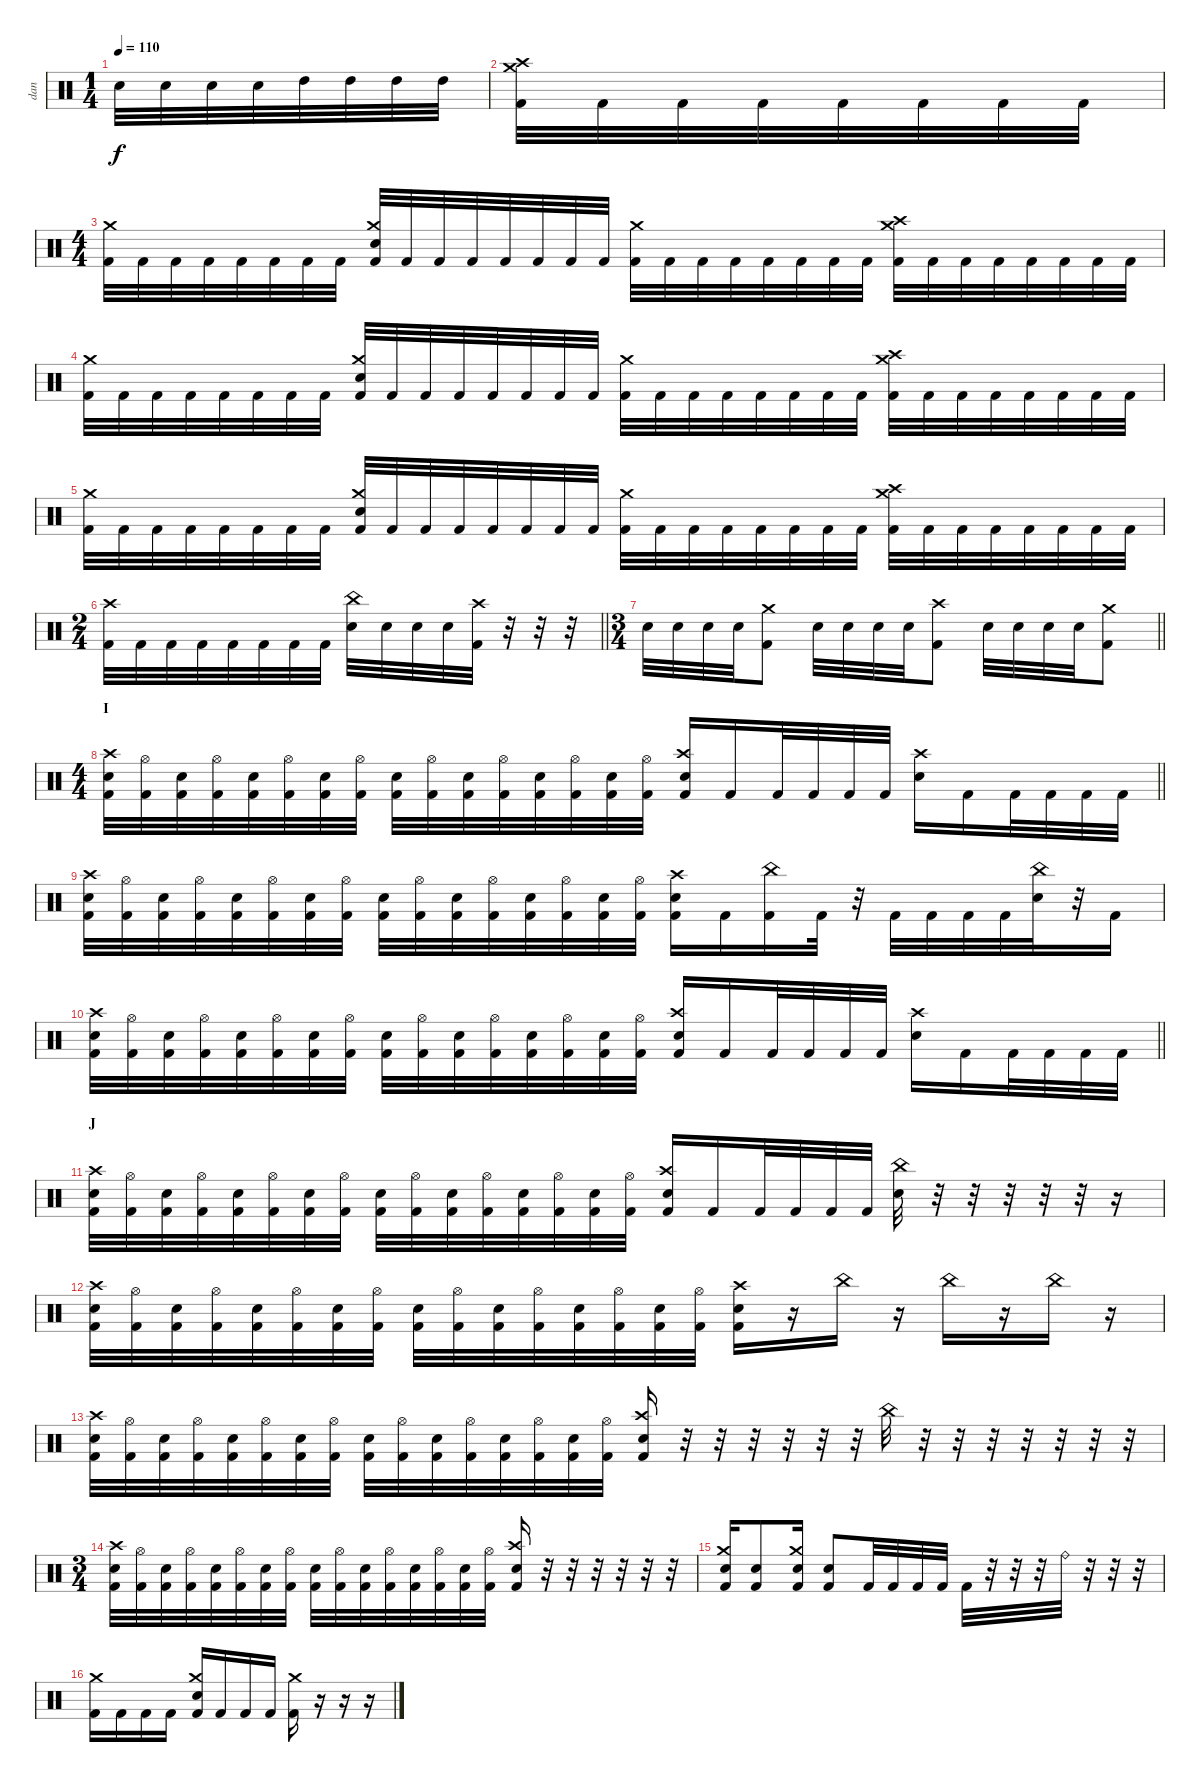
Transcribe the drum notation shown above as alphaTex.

\track ("dan" "dan") {instrument percussion}
\staff {score}
\articulation defaults
\ts (1 4)
\tempo 110
\clef neutral
\ks c "Electric Snare (hit)".32{dy f} "Electric Snare (hit)".32 "Electric Snare (hit)".32 "Electric Snare (hit)".32 "High Tom (hit)".32 "High Tom (hit)".32 "High Tom (hit)".32 "High Tom (hit)".32
|
("Crash high (hit)" "Crash medium (hit)" "Kick (hit) 2").32 "Kick (hit) 2".32 "Kick (hit) 2".32 "Kick (hit) 2".32 "Kick (hit) 2".32 "Kick (hit) 2".32 "Kick (hit) 2".32 "Kick (hit) 2".32 |
\ts (4 4)
("Crash medium (hit)" "Kick (hit) 2").32 "Kick (hit) 2".32 "Kick (hit) 2".32 "Kick (hit) 2".32 "Kick (hit) 2".32 "Kick (hit) 2".32 "Kick (hit) 2".32 "Kick (hit) 2".32 ("Crash medium (hit)" "Electric Snare (hit)" "Kick (hit) 2").32 "Kick (hit) 2".32 "Kick (hit) 2".32 "Kick (hit) 2".32 "Kick (hit) 2".32 "Kick (hit) 2".32 "Kick (hit) 2".32 "Kick (hit) 2".32 ("Crash medium (hit)" "Kick (hit) 2").32 "Kick (hit) 2".32 "Kick (hit) 2".32 "Kick (hit) 2".32 "Kick (hit) 2".32 "Kick (hit) 2".32 "Kick (hit) 2".32 "Kick (hit) 2".32 ("Crash medium (hit)" "Crash high (hit)" "Kick (hit) 2").32 "Kick (hit) 2".32 "Kick (hit) 2".32 "Kick (hit) 2".32 "Kick (hit) 2".32 "Kick (hit) 2".32 "Kick (hit) 2".32 "Kick (hit) 2".32 |
("Crash medium (hit)" "Kick (hit) 2").32 "Kick (hit) 2".32 "Kick (hit) 2".32 "Kick (hit) 2".32 "Kick (hit) 2".32 "Kick (hit) 2".32 "Kick (hit) 2".32 "Kick (hit) 2".32 ("Crash medium (hit)" "Electric Snare (hit)" "Kick (hit) 2").32 "Kick (hit) 2".32 "Kick (hit) 2".32 "Kick (hit) 2".32 "Kick (hit) 2".32 "Kick (hit) 2".32 "Kick (hit) 2".32 "Kick (hit) 2".32 ("Crash medium (hit)" "Kick (hit) 2").32 "Kick (hit) 2".32 "Kick (hit) 2".32 "Kick (hit) 2".32 "Kick (hit) 2".32 "Kick (hit) 2".32 "Kick (hit) 2".32 "Kick (hit) 2".32 ("Crash medium (hit)" "Crash high (hit)" "Kick (hit) 2").32 "Kick (hit) 2".32 "Kick (hit) 2".32 "Kick (hit) 2".32 "Kick (hit) 2".32 "Kick (hit) 2".32 "Kick (hit) 2".32 "Kick (hit) 2".32 |
("Crash medium (hit)" "Kick (hit) 2").32 "Kick (hit) 2".32 "Kick (hit) 2".32 "Kick (hit) 2".32 "Kick (hit) 2".32 "Kick (hit) 2".32 "Kick (hit) 2".32 "Kick (hit) 2".32 ("Crash medium (hit)" "Electric Snare (hit)" "Kick (hit) 2").32 "Kick (hit) 2".32 "Kick (hit) 2".32 "Kick (hit) 2".32 "Kick (hit) 2".32 "Kick (hit) 2".32 "Kick (hit) 2".32 "Kick (hit) 2".32 ("Crash medium (hit)" "Kick (hit) 2").32 "Kick (hit) 2".32 "Kick (hit) 2".32 "Kick (hit) 2".32 "Kick (hit) 2".32 "Kick (hit) 2".32 "Kick (hit) 2".32 "Kick (hit) 2".32 ("Crash medium (hit)" "Crash high (hit)" "Kick (hit) 2").32 "Kick (hit) 2".32 "Kick (hit) 2".32 "Kick (hit) 2".32 "Kick (hit) 2".32 "Kick (hit) 2".32 "Kick (hit) 2".32 "Kick (hit) 2".32 |
\ts (2 4)
\barLineRight lightlight
("Crash high (hit)" "Kick (hit) 2").32 "Kick (hit) 2".32 "Kick (hit) 2".32 "Kick (hit) 2".32 "Kick (hit) 2".32 "Kick (hit) 2".32 "Kick (hit) 2".32 "Kick (hit) 2".32 ("China (hit)" "Electric Snare (hit)").32 "Electric Snare (hit)".32 "Electric Snare (hit)".32 "Electric Snare (hit)".32 ("Crash high (hit)" "Kick (hit) 2").32 r.32 r.32 r.32 |
\ts (3 4)
\barLineRight lightlight "Electric Snare (hit)".32 "Electric Snare (hit)".32 "Electric Snare (hit)".32 "Electric Snare (hit)".32
("Crash medium (hit)" "Kick (hit) 2").8 "Electric Snare (hit)".32 "Electric Snare (hit)".32 "Electric Snare (hit)".32 "Electric Snare (hit)".32 ("Crash high (hit)" "Kick (hit) 2").8 "Electric Snare (hit)".32 "Electric Snare (hit)".32 "Electric Snare (hit)".32 "Electric Snare (hit)".32 ("Crash medium (hit)" "Kick (hit) 2").8 |
\ts (4 4)
\section ("" "I")
\barLineRight lightlight
("Crash high (hit)" "Electric Snare (hit)" "Kick (hit) 2").32 ("Hi-Hat (open)" "Kick (hit) 2").32 ("Electric Snare (hit)" "Kick (hit) 2").32 ("Hi-Hat (open)" "Kick (hit) 2").32 ("Electric Snare (hit)" "Kick (hit) 2").32 ("Hi-Hat (open)" "Kick (hit) 2").32 ("Electric Snare (hit)" "Kick (hit) 2").32 ("Hi-Hat (open)" "Kick (hit) 2").32 ("Electric Snare (hit)" "Kick (hit) 2").32 ("Hi-Hat (open)" "Kick (hit) 2").32 ("Electric Snare (hit)" "Kick (hit) 2").32 ("Hi-Hat (open)" "Kick (hit) 2").32 ("Electric Snare (hit)" "Kick (hit) 2").32 ("Hi-Hat (open)" "Kick (hit) 2").32 ("Electric Snare (hit)" "Kick (hit) 2").32 ("Hi-Hat (open)" "Kick (hit) 2").32 ("Crash high (hit)" "Electric Snare (hit)" "Kick (hit) 2").16 "Kick (hit) 2".16 "Kick (hit) 2".32 "Kick (hit) 2".32 "Kick (hit) 2".32 "Kick (hit) 2".32 ("Crash high (hit)" "Electric Snare (hit)").16 "Kick (hit) 2".16 "Kick (hit) 2".32 "Kick (hit) 2".32 "Kick (hit) 2".32 "Kick (hit) 2".32 |
("Crash high (hit)" "Electric Snare (hit)" "Kick (hit) 2").32 ("Hi-Hat (open)" "Kick (hit) 2").32 ("Electric Snare (hit)" "Kick (hit) 2").32 ("Hi-Hat (open)" "Kick (hit) 2").32 ("Electric Snare (hit)" "Kick (hit) 2").32 ("Hi-Hat (open)" "Kick (hit) 2").32 ("Electric Snare (hit)" "Kick (hit) 2").32 ("Hi-Hat (open)" "Kick (hit) 2").32 ("Electric Snare (hit)" "Kick (hit) 2").32 ("Hi-Hat (open)" "Kick (hit) 2").32 ("Electric Snare (hit)" "Kick (hit) 2").32 ("Hi-Hat (open)" "Kick (hit) 2").32 ("Electric Snare (hit)" "Kick (hit) 2").32 ("Hi-Hat (open)" "Kick (hit) 2").32 ("Electric Snare (hit)" "Kick (hit) 2").32 ("Hi-Hat (open)" "Kick (hit) 2").32 ("Crash high (hit)" "Electric Snare (hit)" "Kick (hit) 2").16 "Kick (hit) 2".16 ("China (hit)" "Kick (hit) 2").16 "Kick (hit) 2".32 r.32 "Kick (hit) 2".32 "Kick (hit) 2".32 "Kick (hit) 2".32 "Kick (hit) 2".32 ("China (hit)" "Electric Snare (hit)").32 r.32 "Kick (hit) 2".16 |
\barLineRight lightlight
("Crash high (hit)" "Electric Snare (hit)" "Kick (hit) 2").32 ("Hi-Hat (open)" "Kick (hit) 2").32 ("Electric Snare (hit)" "Kick (hit) 2").32 ("Hi-Hat (open)" "Kick (hit) 2").32 ("Electric Snare (hit)" "Kick (hit) 2").32 ("Hi-Hat (open)" "Kick (hit) 2").32 ("Electric Snare (hit)" "Kick (hit) 2").32 ("Hi-Hat (open)" "Kick (hit) 2").32 ("Electric Snare (hit)" "Kick (hit) 2").32 ("Hi-Hat (open)" "Kick (hit) 2").32 ("Electric Snare (hit)" "Kick (hit) 2").32 ("Hi-Hat (open)" "Kick (hit) 2").32 ("Electric Snare (hit)" "Kick (hit) 2").32 ("Hi-Hat (open)" "Kick (hit) 2").32 ("Electric Snare (hit)" "Kick (hit) 2").32 ("Hi-Hat (open)" "Kick (hit) 2").32 ("Crash high (hit)" "Electric Snare (hit)" "Kick (hit) 2").16 "Kick (hit) 2".16 "Kick (hit) 2".32 "Kick (hit) 2".32 "Kick (hit) 2".32 "Kick (hit) 2".32 ("Crash high (hit)" "Electric Snare (hit)").16 "Kick (hit) 2".16 "Kick (hit) 2".32 "Kick (hit) 2".32 "Kick (hit) 2".32 "Kick (hit) 2".32 |
\section ("" "J")
("Crash high (hit)" "Electric Snare (hit)" "Kick (hit) 2").32 ("Hi-Hat (open)" "Kick (hit) 2").32 ("Electric Snare (hit)" "Kick (hit) 2").32 ("Hi-Hat (open)" "Kick (hit) 2").32 ("Electric Snare (hit)" "Kick (hit) 2").32 ("Hi-Hat (open)" "Kick (hit) 2").32 ("Electric Snare (hit)" "Kick (hit) 2").32 ("Hi-Hat (open)" "Kick (hit) 2").32 ("Electric Snare (hit)" "Kick (hit) 2").32 ("Hi-Hat (open)" "Kick (hit) 2").32 ("Electric Snare (hit)" "Kick (hit) 2").32 ("Hi-Hat (open)" "Kick (hit) 2").32 ("Electric Snare (hit)" "Kick (hit) 2").32 ("Hi-Hat (open)" "Kick (hit) 2").32 ("Electric Snare (hit)" "Kick (hit) 2").32 ("Hi-Hat (open)" "Kick (hit) 2").32 ("Crash high (hit)" "Electric Snare (hit)" "Kick (hit) 2").16 "Kick (hit) 2".16 "Kick (hit) 2".32 "Kick (hit) 2".32 "Kick (hit) 2".32 "Kick (hit) 2".32 ("China (hit)" "Electric Snare (hit)").32 r.32 r.32 r.32 r.32 r.32 r.16 |
("Crash high (hit)" "Electric Snare (hit)" "Kick (hit) 2").32 ("Hi-Hat (open)" "Kick (hit) 2").32 ("Electric Snare (hit)" "Kick (hit) 2").32 ("Hi-Hat (open)" "Kick (hit) 2").32 ("Electric Snare (hit)" "Kick (hit) 2").32 ("Hi-Hat (open)" "Kick (hit) 2").32 ("Electric Snare (hit)" "Kick (hit) 2").32 ("Hi-Hat (open)" "Kick (hit) 2").32 ("Electric Snare (hit)" "Kick (hit) 2").32 ("Hi-Hat (open)" "Kick (hit) 2").32 ("Electric Snare (hit)" "Kick (hit) 2").32 ("Hi-Hat (open)" "Kick (hit) 2").32 ("Electric Snare (hit)" "Kick (hit) 2").32 ("Hi-Hat (open)" "Kick (hit) 2").32 ("Electric Snare (hit)" "Kick (hit) 2").32 ("Hi-Hat (open)" "Kick (hit) 2").32 ("Crash high (hit)" "Electric Snare (hit)" "Kick (hit) 2").16 r.16 "China (hit)".16 r.16 "China (hit)".16 r.16 "China (hit)".16 r.16 |
("Crash high (hit)" "Electric Snare (hit)" "Kick (hit) 2").32 ("Hi-Hat (open)" "Kick (hit) 2").32 ("Electric Snare (hit)" "Kick (hit) 2").32 ("Hi-Hat (open)" "Kick (hit) 2").32 ("Electric Snare (hit)" "Kick (hit) 2").32 ("Hi-Hat (open)" "Kick (hit) 2").32 ("Electric Snare (hit)" "Kick (hit) 2").32 ("Hi-Hat (open)" "Kick (hit) 2").32 ("Electric Snare (hit)" "Kick (hit) 2").32 ("Hi-Hat (open)" "Kick (hit) 2").32 ("Electric Snare (hit)" "Kick (hit) 2").32 ("Hi-Hat (open)" "Kick (hit) 2").32 ("Electric Snare (hit)" "Kick (hit) 2").32 ("Hi-Hat (open)" "Kick (hit) 2").32 ("Electric Snare (hit)" "Kick (hit) 2").32 ("Hi-Hat (open)" "Kick (hit) 2").32 ("Crash high (hit)" "Electric Snare (hit)" "Kick (hit) 2").16 r.32 r.32 r.32 r.32 r.32 r.32 "China (hit)".32 r.32 r.32 r.32 r.32 r.32 r.32 r.32 |
\ts (3 4)
("Crash high (hit)" "Electric Snare (hit)" "Kick (hit) 2").32 ("Hi-Hat (open)" "Kick (hit) 2").32 ("Electric Snare (hit)" "Kick (hit) 2").32 ("Hi-Hat (open)" "Kick (hit) 2").32 ("Electric Snare (hit)" "Kick (hit) 2").32 ("Hi-Hat (open)" "Kick (hit) 2").32 ("Electric Snare (hit)" "Kick (hit) 2").32 ("Hi-Hat (open)" "Kick (hit) 2").32 ("Electric Snare (hit)" "Kick (hit) 2").32 ("Hi-Hat (open)" "Kick (hit) 2").32 ("Electric Snare (hit)" "Kick (hit) 2").32 ("Hi-Hat (open)" "Kick (hit) 2").32 ("Electric Snare (hit)" "Kick (hit) 2").32 ("Hi-Hat (open)" "Kick (hit) 2").32 ("Electric Snare (hit)" "Kick (hit) 2").32 ("Hi-Hat (open)" "Kick (hit) 2").32 ("Crash high (hit)" "Electric Snare (hit)" "Kick (hit) 2").16 r.32 r.32 r.32 r.32 r.32 r.32 |
("Crash medium (hit)" "Electric Snare (hit)" "Kick (hit) 2").16 ("Electric Snare (hit)" "Kick (hit) 2").8 ("Crash medium (hit)" "Electric Snare (hit)" "Kick (hit) 2").16 ("Electric Snare (hit)" "Kick (hit) 2").8 "Kick (hit) 2".32 "Kick (hit) 2".32 "Kick (hit) 2".32 "Kick (hit) 2".32 "Kick (hit) 2".32 r.32 r.32 r.32 "Ride (bell)".32 r.32 r.32 r.32 |
("Crash medium (hit)" "Kick (hit) 2").16 "Kick (hit) 2".16 "Kick (hit) 2".16 "Kick (hit) 2".16 ("Crash medium (hit)" "Electric Snare (hit)" "Kick (hit) 2").16 "Kick (hit) 2".16 "Kick (hit) 2".16 "Kick (hit) 2".16 ("Crash medium (hit)" "Kick (hit) 2").16 r.16 r.16 r.16
